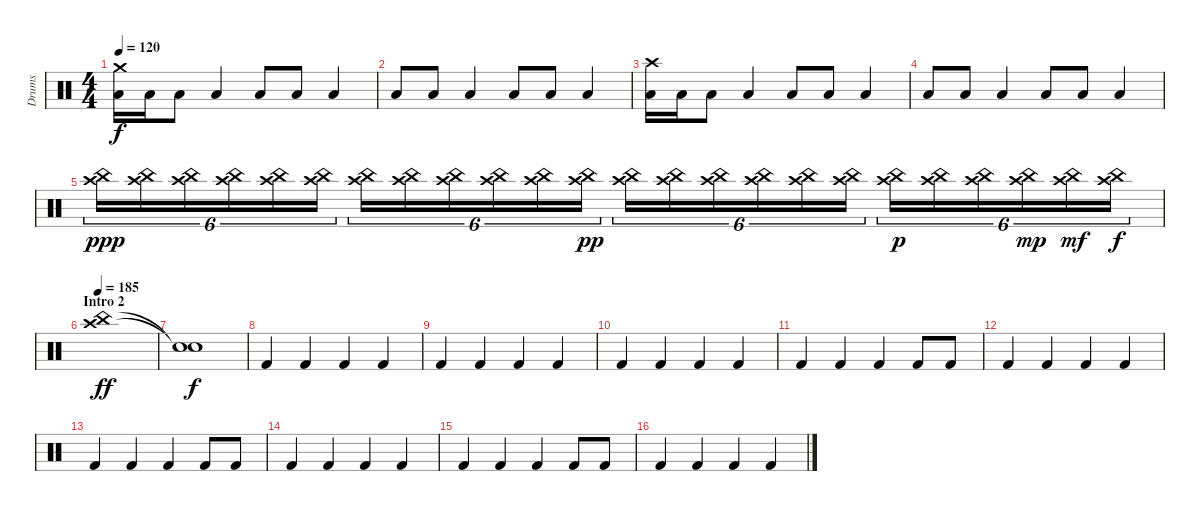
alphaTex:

\track ("Drums" "Drums") {instrument percussion}
\staff {score}
\articulation defaults
\ts (4 4)
\tempo 120
\clef neutral
\ks c
("Low Floor Tom (hit)" "Crash medium (hit)").16{dy f} "Low Floor Tom (hit)".16 "Low Floor Tom (hit)".8 "Low Floor Tom (hit)".4 "Low Floor Tom (hit)".8 "Low Floor Tom (hit)".8 "Low Floor Tom (hit)".4 |
"Low Floor Tom (hit)".8 "Low Floor Tom (hit)".8 "Low Floor Tom (hit)".4 "Low Floor Tom (hit)".8 "Low Floor Tom (hit)".8 "Low Floor Tom (hit)".4 |
("Low Floor Tom (hit)" "Crash high (hit)").16 "Low Floor Tom (hit)".16 "Low Floor Tom (hit)".8 "Low Floor Tom (hit)".4 "Low Floor Tom (hit)".8 "Low Floor Tom (hit)".8 "Low Floor Tom (hit)".4 |
"Low Floor Tom (hit)".8 "Low Floor Tom (hit)".8 "Low Floor Tom (hit)".4 "Low Floor Tom (hit)".8 "Low Floor Tom (hit)".8 "Low Floor Tom (hit)".4 |
("Crash high (hit)" "China (hit)").16{tu (6 4) dy ppp} ("Crash high (hit)" "China (hit)").16{tu (6 4)} ("Crash high (hit)" "China (hit)").16{tu (6 4)} ("Crash high (hit)" "China (hit)").16{tu (6 4)} ("Crash high (hit)" "China (hit)").16{tu (6 4)} ("Crash high (hit)" "China (hit)").16{tu (6 4)} ("Crash high (hit)" "China (hit)").16{tu (6 4)} ("Crash high (hit)" "China (hit)").16{tu (6 4)} ("Crash high (hit)" "China (hit)").16{tu (6 4)} ("Crash high (hit)" "China (hit)").16{tu (6 4)} ("Crash high (hit)" "China (hit)").16{tu (6 4)} ("Crash high (hit)" "China (hit)").16{tu (6 4) dy pp} ("Crash high (hit)" "China (hit)").16{tu (6 4)} ("Crash high (hit)" "China (hit)").16{tu (6 4)} ("Crash high (hit)" "China (hit)").16{tu (6 4)} ("Crash high (hit)" "China (hit)").16{tu (6 4)} ("Crash high (hit)" "China (hit)").16{tu (6 4)} ("Crash high (hit)" "China (hit)").16{tu (6 4)} ("Crash high (hit)" "China (hit)").16{tu (6 4) dy p} ("Crash high (hit)" "China (hit)").16{tu (6 4)} ("Crash high (hit)" "China (hit)").16{tu (6 4)} ("Crash high (hit)" "China (hit)").16{tu (6 4) dy mp} ("Crash high (hit)" "China (hit)").16{tu (6 4) dy mf} ("Crash high (hit)" "China (hit)").16{tu (6 4) dy f} |
\section ("" "Intro 2")
\tempo 185
("Crash high (hit)" "China (hit)").1{dy ff} |
("Snare (hit)"{t} "Snare (hit)"{t}).1{dy f} |
"Kick (hit) 2".4 "Kick (hit) 2".4 "Kick (hit) 2".4 "Kick (hit) 2".4 |
"Kick (hit) 2".4 "Kick (hit) 2".4 "Kick (hit) 2".4 "Kick (hit) 2".4 |
"Kick (hit) 2".4 "Kick (hit) 2".4 "Kick (hit) 2".4 "Kick (hit) 2".4 |
"Kick (hit) 2".4 "Kick (hit) 2".4 "Kick (hit) 2".4 "Kick (hit) 2".8 "Kick (hit) 2".8 |
"Kick (hit) 2".4 "Kick (hit) 2".4 "Kick (hit) 2".4 "Kick (hit) 2".4 |
"Kick (hit) 2".4 "Kick (hit) 2".4 "Kick (hit) 2".4 "Kick (hit) 2".8 "Kick (hit) 2".8 |
"Kick (hit) 2".4 "Kick (hit) 2".4 "Kick (hit) 2".4 "Kick (hit) 2".4 |
"Kick (hit) 2".4 "Kick (hit) 2".4 "Kick (hit) 2".4 "Kick (hit) 2".8 "Kick (hit) 2".8 |
"Kick (hit) 2".4 "Kick (hit) 2".4 "Kick (hit) 2".4 "Kick (hit) 2".4
